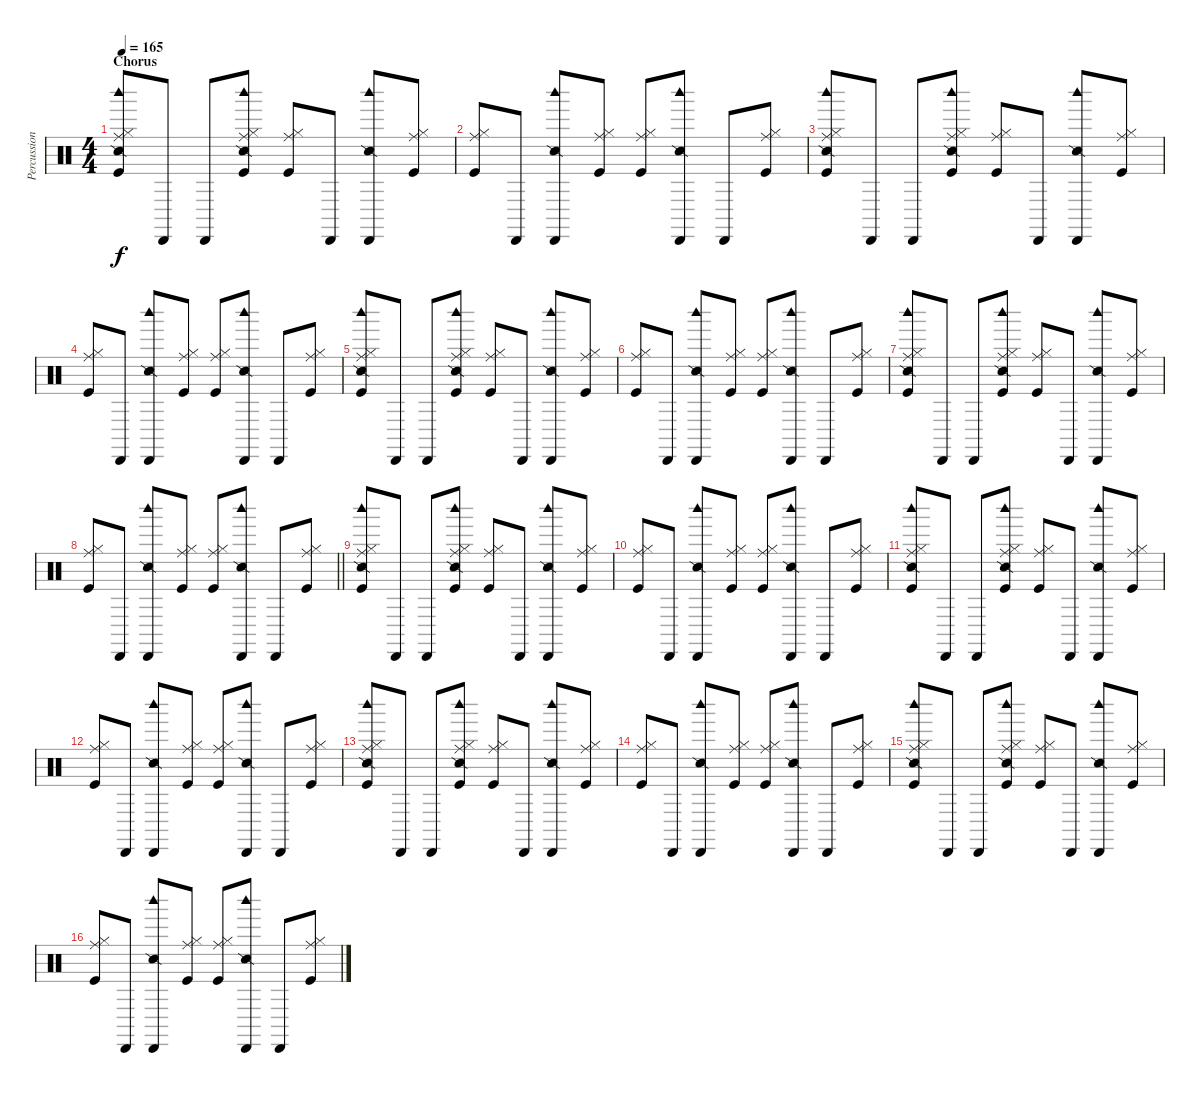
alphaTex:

\track ("Percussion" "Percussion") {instrument percussion}
\staff {score}
\articulation defaults
\ts (4 4)
\section ("" "Chorus")
\tempo 165
\clef neutral
\ks c
("Ride (middle)" "Snare (side stick) 2" "Hi-Hat (closed)" "Woodblock high (hit)" "Kick (hit)").8{dy f} "Cabasa (hit)".8 "Cabasa (hit)".8 ("Ride (middle)" "Snare (side stick) 2" "Hi-Hat (closed)" "Woodblock high (hit)" "Kick (hit)").8 ("Ride (middle)" "Hi-Hat (closed)" "Kick (hit)").8 "Cabasa (hit)".8 ("Snare (side stick) 2" "Cabasa (hit)" "Woodblock high (hit)").8 ("Ride (middle)" "Hi-Hat (closed)" "Kick (hit)").8 |
("Ride (middle)" "Hi-Hat (closed)" "Kick (hit)").8 "Cabasa (hit)".8 ("Snare (side stick) 2" "Cabasa (hit)" "Woodblock high (hit)").8 ("Ride (middle)" "Hi-Hat (closed)" "Kick (hit)").8 ("Ride (middle)" "Hi-Hat (closed)" "Kick (hit)").8 ("Snare (side stick) 2" "Cabasa (hit)" "Woodblock high (hit)").8 "Cabasa (hit)".8 ("Ride (middle)" "Hi-Hat (closed)" "Kick (hit)").8 |
("Ride (middle)" "Snare (side stick) 2" "Hi-Hat (closed)" "Woodblock high (hit)" "Kick (hit)").8 "Cabasa (hit)".8 "Cabasa (hit)".8 ("Ride (middle)" "Snare (side stick) 2" "Hi-Hat (closed)" "Woodblock high (hit)" "Kick (hit)").8 ("Ride (middle)" "Hi-Hat (closed)" "Kick (hit)").8 "Cabasa (hit)".8 ("Snare (side stick) 2" "Cabasa (hit)" "Woodblock high (hit)").8 ("Ride (middle)" "Hi-Hat (closed)" "Kick (hit)").8 |
("Ride (middle)" "Hi-Hat (closed)" "Kick (hit)").8 "Cabasa (hit)".8 ("Snare (side stick) 2" "Cabasa (hit)" "Woodblock high (hit)").8 ("Ride (middle)" "Hi-Hat (closed)" "Kick (hit)").8 ("Ride (middle)" "Hi-Hat (closed)" "Kick (hit)").8 ("Snare (side stick) 2" "Cabasa (hit)" "Woodblock high (hit)").8 "Cabasa (hit)".8 ("Ride (middle)" "Hi-Hat (closed)" "Kick (hit)").8 |
("Ride (middle)" "Snare (side stick) 2" "Hi-Hat (closed)" "Woodblock high (hit)" "Kick (hit)").8 "Cabasa (hit)".8 "Cabasa (hit)".8 ("Ride (middle)" "Snare (side stick) 2" "Hi-Hat (closed)" "Woodblock high (hit)" "Kick (hit)").8 ("Ride (middle)" "Hi-Hat (closed)" "Kick (hit)").8 "Cabasa (hit)".8 ("Snare (side stick) 2" "Cabasa (hit)" "Woodblock high (hit)").8 ("Ride (middle)" "Hi-Hat (closed)" "Kick (hit)").8 |
("Ride (middle)" "Hi-Hat (closed)" "Kick (hit)").8 "Cabasa (hit)".8 ("Snare (side stick) 2" "Cabasa (hit)" "Woodblock high (hit)").8 ("Ride (middle)" "Hi-Hat (closed)" "Kick (hit)").8 ("Ride (middle)" "Hi-Hat (closed)" "Kick (hit)").8 ("Snare (side stick) 2" "Cabasa (hit)" "Woodblock high (hit)").8 "Cabasa (hit)".8 ("Ride (middle)" "Hi-Hat (closed)" "Kick (hit)").8 |
("Ride (middle)" "Snare (side stick) 2" "Hi-Hat (closed)" "Woodblock high (hit)" "Kick (hit)").8 "Cabasa (hit)".8 "Cabasa (hit)".8 ("Ride (middle)" "Snare (side stick) 2" "Hi-Hat (closed)" "Woodblock high (hit)" "Kick (hit)").8 ("Ride (middle)" "Hi-Hat (closed)" "Kick (hit)").8 "Cabasa (hit)".8 ("Snare (side stick) 2" "Cabasa (hit)" "Woodblock high (hit)").8 ("Ride (middle)" "Hi-Hat (closed)" "Kick (hit)").8 |
\barLineRight lightlight
("Ride (middle)" "Hi-Hat (closed)" "Kick (hit)").8 "Cabasa (hit)".8 ("Snare (side stick) 2" "Cabasa (hit)" "Woodblock high (hit)").8 ("Ride (middle)" "Hi-Hat (closed)" "Kick (hit)").8 ("Ride (middle)" "Hi-Hat (closed)" "Kick (hit)").8 ("Snare (side stick) 2" "Cabasa (hit)" "Woodblock high (hit)").8 "Cabasa (hit)".8 ("Ride (middle)" "Hi-Hat (closed)" "Kick (hit)").8 |
("Ride (middle)" "Snare (side stick) 2" "Hi-Hat (closed)" "Woodblock high (hit)" "Kick (hit)").8 "Cabasa (hit)".8 "Cabasa (hit)".8 ("Ride (middle)" "Snare (side stick) 2" "Hi-Hat (closed)" "Woodblock high (hit)" "Kick (hit)").8 ("Ride (middle)" "Hi-Hat (closed)" "Kick (hit)").8 "Cabasa (hit)".8 ("Snare (side stick) 2" "Cabasa (hit)" "Woodblock high (hit)").8 ("Ride (middle)" "Hi-Hat (closed)" "Kick (hit)").8 |
("Ride (middle)" "Hi-Hat (closed)" "Kick (hit)").8 "Cabasa (hit)".8 ("Snare (side stick) 2" "Cabasa (hit)" "Woodblock high (hit)").8 ("Ride (middle)" "Hi-Hat (closed)" "Kick (hit)").8 ("Ride (middle)" "Hi-Hat (closed)" "Kick (hit)").8 ("Snare (side stick) 2" "Cabasa (hit)" "Woodblock high (hit)").8 "Cabasa (hit)".8 ("Ride (middle)" "Hi-Hat (closed)" "Kick (hit)").8 |
("Ride (middle)" "Snare (side stick) 2" "Hi-Hat (closed)" "Woodblock high (hit)" "Kick (hit)").8 "Cabasa (hit)".8 "Cabasa (hit)".8 ("Ride (middle)" "Snare (side stick) 2" "Hi-Hat (closed)" "Woodblock high (hit)" "Kick (hit)").8 ("Ride (middle)" "Hi-Hat (closed)" "Kick (hit)").8 "Cabasa (hit)".8 ("Snare (side stick) 2" "Cabasa (hit)" "Woodblock high (hit)").8 ("Ride (middle)" "Hi-Hat (closed)" "Kick (hit)").8 |
("Ride (middle)" "Hi-Hat (closed)" "Kick (hit)").8 "Cabasa (hit)".8 ("Snare (side stick) 2" "Cabasa (hit)" "Woodblock high (hit)").8 ("Ride (middle)" "Hi-Hat (closed)" "Kick (hit)").8 ("Ride (middle)" "Hi-Hat (closed)" "Kick (hit)").8 ("Snare (side stick) 2" "Cabasa (hit)" "Woodblock high (hit)").8 "Cabasa (hit)".8 ("Ride (middle)" "Hi-Hat (closed)" "Kick (hit)").8 |
("Ride (middle)" "Snare (side stick) 2" "Hi-Hat (closed)" "Woodblock high (hit)" "Kick (hit)").8 "Cabasa (hit)".8 "Cabasa (hit)".8 ("Ride (middle)" "Snare (side stick) 2" "Hi-Hat (closed)" "Woodblock high (hit)" "Kick (hit)").8 ("Ride (middle)" "Hi-Hat (closed)" "Kick (hit)").8 "Cabasa (hit)".8 ("Snare (side stick) 2" "Cabasa (hit)" "Woodblock high (hit)").8 ("Ride (middle)" "Hi-Hat (closed)" "Kick (hit)").8 |
("Ride (middle)" "Hi-Hat (closed)" "Kick (hit)").8 "Cabasa (hit)".8 ("Snare (side stick) 2" "Cabasa (hit)" "Woodblock high (hit)").8 ("Ride (middle)" "Hi-Hat (closed)" "Kick (hit)").8 ("Ride (middle)" "Hi-Hat (closed)" "Kick (hit)").8 ("Snare (side stick) 2" "Cabasa (hit)" "Woodblock high (hit)").8 "Cabasa (hit)".8 ("Ride (middle)" "Hi-Hat (closed)" "Kick (hit)").8 |
("Ride (middle)" "Snare (side stick) 2" "Hi-Hat (closed)" "Woodblock high (hit)" "Kick (hit)").8 "Cabasa (hit)".8 "Cabasa (hit)".8 ("Ride (middle)" "Snare (side stick) 2" "Hi-Hat (closed)" "Woodblock high (hit)" "Kick (hit)").8 ("Ride (middle)" "Hi-Hat (closed)" "Kick (hit)").8 "Cabasa (hit)".8 ("Snare (side stick) 2" "Cabasa (hit)" "Woodblock high (hit)").8 ("Ride (middle)" "Hi-Hat (closed)" "Kick (hit)").8 |
("Ride (middle)" "Hi-Hat (closed)" "Kick (hit)").8 "Cabasa (hit)".8 ("Snare (side stick) 2" "Cabasa (hit)" "Woodblock high (hit)").8 ("Ride (middle)" "Hi-Hat (closed)" "Kick (hit)").8 ("Ride (middle)" "Hi-Hat (closed)" "Kick (hit)").8 ("Snare (side stick) 2" "Cabasa (hit)" "Woodblock high (hit)").8 "Cabasa (hit)".8 ("Ride (middle)" "Hi-Hat (closed)" "Kick (hit)").8
